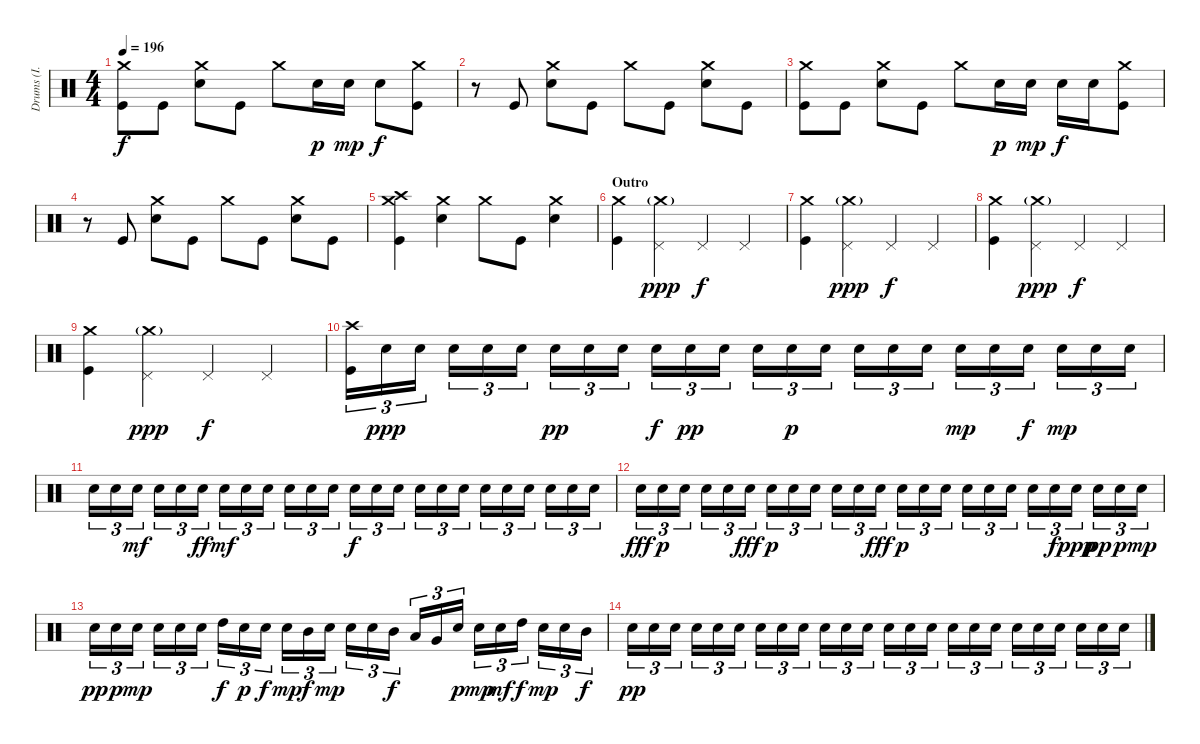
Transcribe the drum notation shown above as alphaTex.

\track ("Drums (I. Paice)" "Drums (I. ") {instrument percussion}
\staff {score}
\articulation defaults
\ts (4 4)
\tempo 196
\clef neutral
\ks c
("Crash medium (hit)" "Kick (hit)").8{dy f} "Kick (hit)".8 ("Crash medium (hit)" "Electric Snare (hit)").8 "Kick (hit)".8 "Crash medium (hit)".8 "Electric Snare (hit)".16{dy p} "Electric Snare (hit)".16{dy mp} "Electric Snare (hit)".8{dy f} ("Crash medium (hit)" "Kick (hit)").8 |
r.8 "Kick (hit)".8 ("Crash medium (hit)" "Electric Snare (hit)").8 "Kick (hit)".8 "Crash medium (hit)".8 "Kick (hit)".8 ("Crash medium (hit)" "Electric Snare (hit)").8 "Kick (hit)".8 |
("Crash medium (hit)" "Kick (hit)").8 "Kick (hit)".8 ("Crash medium (hit)" "Electric Snare (hit)").8 "Kick (hit)".8 "Crash medium (hit)".8 "Electric Snare (hit)".16{dy p} "Electric Snare (hit)".16{dy mp} "Electric Snare (hit)".16{dy f} "Electric Snare (hit)".16 ("Crash medium (hit)" "Kick (hit)").8 |
r.8 "Kick (hit)".8 ("Crash medium (hit)" "Electric Snare (hit)").8 "Kick (hit)".8 "Crash medium (hit)".8 "Kick (hit)".8 ("Crash medium (hit)" "Electric Snare (hit)").8 "Kick (hit)".8 |
("Crash medium (hit)" "Crash high (hit)" "Kick (hit)").4 ("Crash medium (hit)" "Electric Snare (hit)").4 "Crash medium (hit)".8 "Kick (hit)".8 ("Crash medium (hit)" "Electric Snare (hit)").4 |
\section ("" "Outro")
("Crash medium (hit)" "Kick (hit)").4 ("Crash medium (hit)"{g} "Pedal Hi-Hat (hit)").4{dy ppp} "Pedal Hi-Hat (hit)".4{dy f} "Pedal Hi-Hat (hit)".4 |
("Crash medium (hit)" "Kick (hit)").4 ("Crash medium (hit)"{g} "Pedal Hi-Hat (hit)").4{dy ppp} "Pedal Hi-Hat (hit)".4{dy f} "Pedal Hi-Hat (hit)".4 |
("Crash medium (hit)" "Kick (hit)").4 ("Crash medium (hit)"{g} "Pedal Hi-Hat (hit)").4{dy ppp} "Pedal Hi-Hat (hit)".4{dy f} "Pedal Hi-Hat (hit)".4 |
("Crash medium (hit)" "Kick (hit)").4 ("Crash medium (hit)"{g} "Pedal Hi-Hat (hit)").4{dy ppp} "Pedal Hi-Hat (hit)".4{dy f} "Pedal Hi-Hat (hit)".4 |
("Crash high (hit)" "Kick (hit)").16{tu (3 2)} "Electric Snare (hit)".16{tu (3 2) dy ppp} "Electric Snare (hit)".16{tu (3 2)} "Electric Snare (hit)".16{tu (3 2)} "Electric Snare (hit)".16{tu (3 2)} "Electric Snare (hit)".16{tu (3 2)} "Electric Snare (hit)".16{tu (3 2) dy pp} "Electric Snare (hit)".16{tu (3 2)} "Electric Snare (hit)".16{tu (3 2)} "Electric Snare (hit)".16{tu (3 2) dy f} "Electric Snare (hit)".16{tu (3 2) dy pp} "Electric Snare (hit)".16{tu (3 2)} "Electric Snare (hit)".16{tu (3 2)} "Electric Snare (hit)".16{tu (3 2) dy p} "Electric Snare (hit)".16{tu (3 2)} "Electric Snare (hit)".16{tu (3 2)} "Electric Snare (hit)".16{tu (3 2)} "Electric Snare (hit)".16{tu (3 2)} "Electric Snare (hit)".16{tu (3 2) dy mp} "Electric Snare (hit)".16{tu (3 2)} "Electric Snare (hit)".16{tu (3 2) dy f} "Electric Snare (hit)".16{tu (3 2) dy mp} "Electric Snare (hit)".16{tu (3 2)} "Electric Snare (hit)".16{tu (3 2)} |
"Electric Snare (hit)".16{tu (3 2)} "Electric Snare (hit)".16{tu (3 2)} "Electric Snare (hit)".16{tu (3 2) dy mf} "Electric Snare (hit)".16{tu (3 2)} "Electric Snare (hit)".16{tu (3 2)} "Electric Snare (hit)".16{tu (3 2) dy ff} "Electric Snare (hit)".16{tu (3 2) dy mf} "Electric Snare (hit)".16{tu (3 2)} "Electric Snare (hit)".16{tu (3 2)} "Electric Snare (hit)".16{tu (3 2)} "Electric Snare (hit)".16{tu (3 2)} "Electric Snare (hit)".16{tu (3 2)} "Electric Snare (hit)".16{tu (3 2) dy f} "Electric Snare (hit)".16{tu (3 2)} "Electric Snare (hit)".16{tu (3 2)} "Electric Snare (hit)".16{tu (3 2)} "Electric Snare (hit)".16{tu (3 2)} "Electric Snare (hit)".16{tu (3 2)} "Electric Snare (hit)".16{tu (3 2)} "Electric Snare (hit)".16{tu (3 2)} "Electric Snare (hit)".16{tu (3 2)} "Electric Snare (hit)".16{tu (3 2)} "Electric Snare (hit)".16{tu (3 2)} "Electric Snare (hit)".16{tu (3 2)} |
"Electric Snare (hit)".16{tu (3 2) dy fff} "Electric Snare (hit)".16{tu (3 2) dy p} "Electric Snare (hit)".16{tu (3 2)} "Electric Snare (hit)".16{tu (3 2)} "Electric Snare (hit)".16{tu (3 2)} "Electric Snare (hit)".16{tu (3 2) dy fff} "Electric Snare (hit)".16{tu (3 2) dy p} "Electric Snare (hit)".16{tu (3 2)} "Electric Snare (hit)".16{tu (3 2)} "Electric Snare (hit)".16{tu (3 2)} "Electric Snare (hit)".16{tu (3 2)} "Electric Snare (hit)".16{tu (3 2) dy fff} "Electric Snare (hit)".16{tu (3 2) dy p} "Electric Snare (hit)".16{tu (3 2)} "Electric Snare (hit)".16{tu (3 2)} "Electric Snare (hit)".16{tu (3 2)} "Electric Snare (hit)".16{tu (3 2)} "Electric Snare (hit)".16{tu (3 2)} "Electric Snare (hit)".16{tu (3 2)} "Electric Snare (hit)".16{tu (3 2) dy f} "Electric Snare (hit)".16{tu (3 2) dy ppp} "Electric Snare (hit)".16{tu (3 2) dy pp} "Electric Snare (hit)".16{tu (3 2) dy p} "Electric Snare (hit)".16{tu (3 2) dy mp} |
"Electric Snare (hit)".16{tu (3 2) dy pp} "Electric Snare (hit)".16{tu (3 2) dy p} "Electric Snare (hit)".16{tu (3 2) dy mp} "Electric Snare (hit)".16{tu (3 2)} "Electric Snare (hit)".16{tu (3 2)} "Electric Snare (hit)".16{tu (3 2)} "High Tom (hit)".16{tu (3 2) dy f} "Electric Snare (hit)".16{tu (3 2) dy p} "Electric Snare (hit)".16{tu (3 2) dy f} "Electric Snare (hit)".16{tu (3 2) dy mp} "Mid Tom (hit)".16{tu (3 2) dy f} "Electric Snare (hit)".16{tu (3 2) dy mp} "Electric Snare (hit)".16{tu (3 2)} "Electric Snare (hit)".16{tu (3 2)} "Mid Tom (hit)".16{tu (3 2) dy f} "Low Tom (hit)".16{tu (3 2)} "Very Low Tom (hit)".16{tu (3 2)} "Electric Snare (hit)".16{tu (3 2) dy p} "Electric Snare (hit)".16{tu (3 2) dy mp} "Electric Snare (hit)".16{tu (3 2) dy mf} "High Tom (hit)".16{tu (3 2) dy f} "Electric Snare (hit)".16{tu (3 2) dy mp} "Electric Snare (hit)".16{tu (3 2)} "Mid Tom (hit)".16{tu (3 2) dy f} |
"Electric Snare (hit)".16{tu (3 2) dy pp} "Electric Snare (hit)".16{tu (3 2)} "Electric Snare (hit)".16{tu (3 2)} "Electric Snare (hit)".16{tu (3 2)} "Electric Snare (hit)".16{tu (3 2)} "Electric Snare (hit)".16{tu (3 2)} "Electric Snare (hit)".16{tu (3 2)} "Electric Snare (hit)".16{tu (3 2)} "Electric Snare (hit)".16{tu (3 2)} "Electric Snare (hit)".16{tu (3 2)} "Electric Snare (hit)".16{tu (3 2)} "Electric Snare (hit)".16{tu (3 2)} "Electric Snare (hit)".16{tu (3 2)} "Electric Snare (hit)".16{tu (3 2)} "Electric Snare (hit)".16{tu (3 2)} "Electric Snare (hit)".16{tu (3 2)} "Electric Snare (hit)".16{tu (3 2)} "Electric Snare (hit)".16{tu (3 2)} "Electric Snare (hit)".16{tu (3 2)} "Electric Snare (hit)".16{tu (3 2)} "Electric Snare (hit)".16{tu (3 2)} "Electric Snare (hit)".16{tu (3 2)} "Electric Snare (hit)".16{tu (3 2)} "Electric Snare (hit)".16{tu (3 2)}
